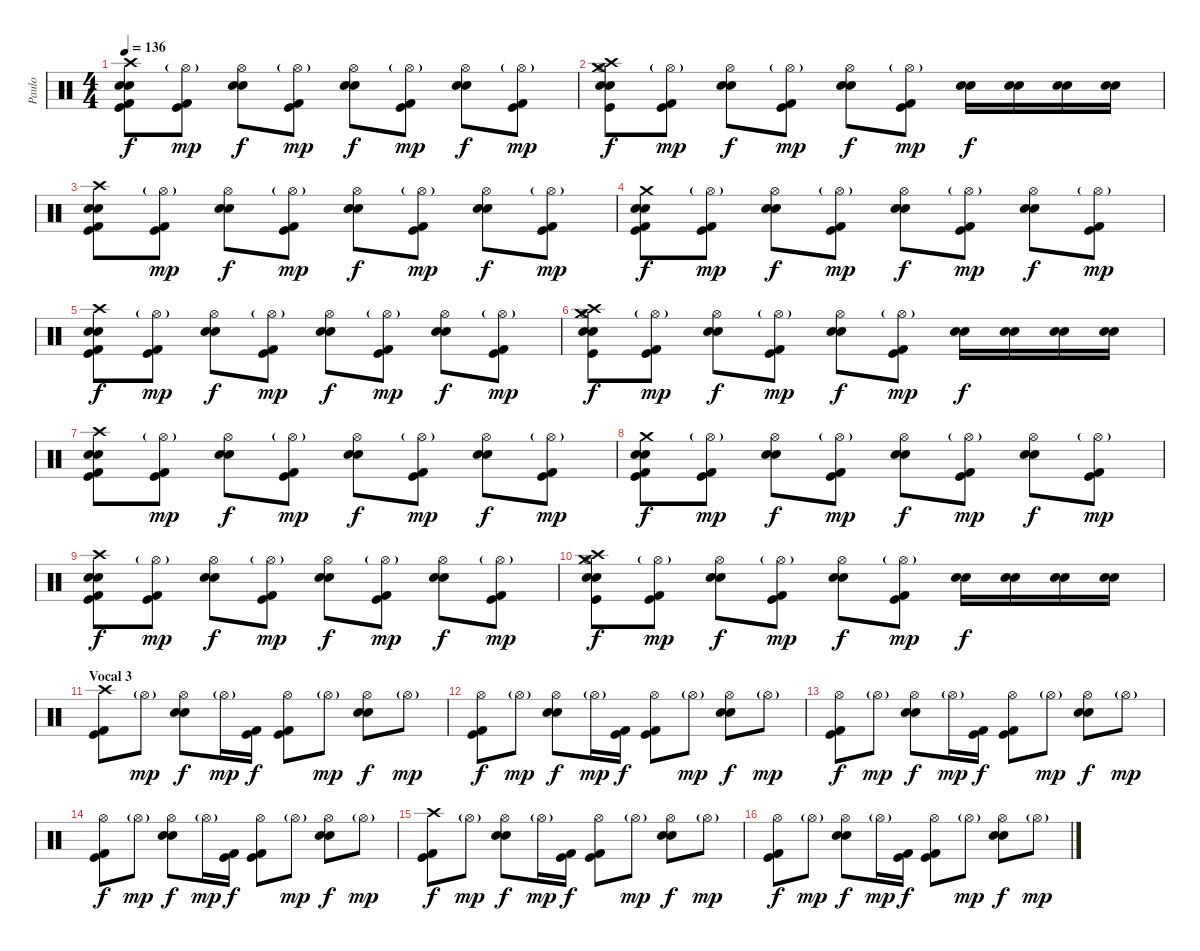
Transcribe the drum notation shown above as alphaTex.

\track ("Paulo" "Paulo") {instrument percussion}
\staff {score}
\articulation defaults
\ts (4 4)
\tempo 136
\clef neutral
\ks c
("Kick (hit) 2" "Snare (hit) 2" "Electric Snare (hit)" "Kick (hit)" "Crash high (hit)").8{dy f} ("Hi-Hat (open)"{g} "Kick (hit) 2" "Kick (hit)").8{dy mp} ("Hi-Hat (open)" "Snare (hit) 2" "Electric Snare (hit)").8{dy f} ("Hi-Hat (open)"{g} "Kick (hit) 2" "Kick (hit)").8{dy mp} ("Hi-Hat (open)" "Snare (hit) 2" "Electric Snare (hit)").8{dy f} ("Hi-Hat (open)"{g} "Kick (hit) 2" "Kick (hit)").8{dy mp} ("Hi-Hat (open)" "Snare (hit) 2" "Electric Snare (hit)").8{dy f} ("Hi-Hat (open)"{g} "Kick (hit) 2" "Kick (hit)").8{dy mp} |
("Hi-Hat (open)" "Snare (hit) 2" "Kick (hit)" "Crash medium (hit)" "Crash high (hit)" "Electric Snare (hit)").8{dy f} ("Hi-Hat (open)"{g} "Kick (hit) 2" "Kick (hit)").8{dy mp} ("Hi-Hat (open)" "Snare (hit) 2" "Electric Snare (hit)").8{dy f} ("Hi-Hat (open)"{g} "Kick (hit) 2" "Kick (hit)").8{dy mp} ("Hi-Hat (open)" "Snare (hit) 2" "Electric Snare (hit)").8{dy f} ("Hi-Hat (open)"{g} "Kick (hit) 2" "Kick (hit)").8{dy mp} ("Snare (hit) 2" "Electric Snare (hit)").16{dy f} ("Snare (hit) 2" "Electric Snare (hit)").16 ("Snare (hit) 2" "Electric Snare (hit)").16 ("Snare (hit) 2" "Electric Snare (hit)").16 |
("Kick (hit) 2" "Snare (hit) 2" "Electric Snare (hit)" "Kick (hit)" "Crash high (hit)").8 ("Hi-Hat (open)"{g} "Kick (hit) 2" "Kick (hit)").8{dy mp} ("Hi-Hat (open)" "Snare (hit) 2" "Electric Snare (hit)").8{dy f} ("Hi-Hat (open)"{g} "Kick (hit) 2" "Kick (hit)").8{dy mp} ("Hi-Hat (open)" "Snare (hit) 2" "Electric Snare (hit)").8{dy f} ("Hi-Hat (open)"{g} "Kick (hit) 2" "Kick (hit)").8{dy mp} ("Hi-Hat (open)" "Snare (hit) 2" "Electric Snare (hit)").8{dy f} ("Hi-Hat (open)"{g} "Kick (hit) 2" "Kick (hit)").8{dy mp} |
("Kick (hit) 2" "Snare (hit) 2" "Electric Snare (hit)" "Kick (hit)" "Crash medium (hit)").8{dy f} ("Hi-Hat (open)"{g} "Kick (hit) 2" "Kick (hit)").8{dy mp} ("Hi-Hat (open)" "Snare (hit) 2" "Electric Snare (hit)").8{dy f} ("Hi-Hat (open)"{g} "Kick (hit) 2" "Kick (hit)").8{dy mp} ("Hi-Hat (open)" "Snare (hit) 2" "Electric Snare (hit)").8{dy f} ("Hi-Hat (open)"{g} "Kick (hit) 2" "Kick (hit)").8{dy mp} ("Hi-Hat (open)" "Snare (hit) 2" "Electric Snare (hit)").8{dy f} ("Hi-Hat (open)"{g} "Kick (hit) 2" "Kick (hit)").8{dy mp} |
("Kick (hit) 2" "Snare (hit) 2" "Electric Snare (hit)" "Kick (hit)" "Crash high (hit)").8{dy f} ("Hi-Hat (open)"{g} "Kick (hit) 2" "Kick (hit)").8{dy mp} ("Hi-Hat (open)" "Snare (hit) 2" "Electric Snare (hit)").8{dy f} ("Hi-Hat (open)"{g} "Kick (hit) 2" "Kick (hit)").8{dy mp} ("Hi-Hat (open)" "Snare (hit) 2" "Electric Snare (hit)").8{dy f} ("Hi-Hat (open)"{g} "Kick (hit) 2" "Kick (hit)").8{dy mp} ("Hi-Hat (open)" "Snare (hit) 2" "Electric Snare (hit)").8{dy f} ("Hi-Hat (open)"{g} "Kick (hit) 2" "Kick (hit)").8{dy mp} |
("Hi-Hat (open)" "Snare (hit) 2" "Kick (hit)" "Crash medium (hit)" "Crash high (hit)" "Electric Snare (hit)").8{dy f} ("Hi-Hat (open)"{g} "Kick (hit) 2" "Kick (hit)").8{dy mp} ("Hi-Hat (open)" "Snare (hit) 2" "Electric Snare (hit)").8{dy f} ("Hi-Hat (open)"{g} "Kick (hit) 2" "Kick (hit)").8{dy mp} ("Hi-Hat (open)" "Snare (hit) 2" "Electric Snare (hit)").8{dy f} ("Hi-Hat (open)"{g} "Kick (hit) 2" "Kick (hit)").8{dy mp} ("Snare (hit) 2" "Electric Snare (hit)").16{dy f} ("Snare (hit) 2" "Electric Snare (hit)").16 ("Snare (hit) 2" "Electric Snare (hit)").16 ("Snare (hit) 2" "Electric Snare (hit)").16 |
("Kick (hit) 2" "Snare (hit) 2" "Electric Snare (hit)" "Kick (hit)" "Crash high (hit)").8 ("Hi-Hat (open)"{g} "Kick (hit) 2" "Kick (hit)").8{dy mp} ("Hi-Hat (open)" "Snare (hit) 2" "Electric Snare (hit)").8{dy f} ("Hi-Hat (open)"{g} "Kick (hit) 2" "Kick (hit)").8{dy mp} ("Hi-Hat (open)" "Snare (hit) 2" "Electric Snare (hit)").8{dy f} ("Hi-Hat (open)"{g} "Kick (hit) 2" "Kick (hit)").8{dy mp} ("Hi-Hat (open)" "Snare (hit) 2" "Electric Snare (hit)").8{dy f} ("Hi-Hat (open)"{g} "Kick (hit) 2" "Kick (hit)").8{dy mp} |
("Kick (hit) 2" "Snare (hit) 2" "Electric Snare (hit)" "Kick (hit)" "Crash medium (hit)").8{dy f} ("Hi-Hat (open)"{g} "Kick (hit) 2" "Kick (hit)").8{dy mp} ("Hi-Hat (open)" "Snare (hit) 2" "Electric Snare (hit)").8{dy f} ("Hi-Hat (open)"{g} "Kick (hit) 2" "Kick (hit)").8{dy mp} ("Hi-Hat (open)" "Snare (hit) 2" "Electric Snare (hit)").8{dy f} ("Hi-Hat (open)"{g} "Kick (hit) 2" "Kick (hit)").8{dy mp} ("Hi-Hat (open)" "Snare (hit) 2" "Electric Snare (hit)").8{dy f} ("Hi-Hat (open)"{g} "Kick (hit) 2" "Kick (hit)").8{dy mp} |
("Kick (hit) 2" "Snare (hit) 2" "Electric Snare (hit)" "Kick (hit)" "Crash high (hit)").8{dy f} ("Hi-Hat (open)"{g} "Kick (hit) 2" "Kick (hit)").8{dy mp} ("Hi-Hat (open)" "Snare (hit) 2" "Electric Snare (hit)").8{dy f} ("Hi-Hat (open)"{g} "Kick (hit) 2" "Kick (hit)").8{dy mp} ("Hi-Hat (open)" "Snare (hit) 2" "Electric Snare (hit)").8{dy f} ("Hi-Hat (open)"{g} "Kick (hit) 2" "Kick (hit)").8{dy mp} ("Hi-Hat (open)" "Snare (hit) 2" "Electric Snare (hit)").8{dy f} ("Hi-Hat (open)"{g} "Kick (hit) 2" "Kick (hit)").8{dy mp} |
("Hi-Hat (open)" "Snare (hit) 2" "Kick (hit)" "Crash medium (hit)" "Crash high (hit)" "Electric Snare (hit)").8{dy f} ("Hi-Hat (open)"{g} "Kick (hit) 2" "Kick (hit)").8{dy mp} ("Hi-Hat (open)" "Snare (hit) 2" "Electric Snare (hit)").8{dy f} ("Hi-Hat (open)"{g} "Kick (hit) 2" "Kick (hit)").8{dy mp} ("Hi-Hat (open)" "Snare (hit) 2" "Electric Snare (hit)").8{dy f} ("Hi-Hat (open)"{g} "Kick (hit) 2" "Kick (hit)").8{dy mp} ("Snare (hit) 2" "Electric Snare (hit)").16{dy f} ("Snare (hit) 2" "Electric Snare (hit)").16 ("Snare (hit) 2" "Electric Snare (hit)").16 ("Snare (hit) 2" "Electric Snare (hit)").16 |
\section ("" "Vocal 3")
("Crash high (hit)" "Kick (hit) 2" "Kick (hit)").8 "Hi-Hat (open)"{g}.8{dy mp} ("Hi-Hat (open)" "Electric Snare (hit)" "Snare (hit) 2").8{dy f} "Hi-Hat (open)"{g}.16{dy mp} ("Kick (hit) 2" "Kick (hit)").16{dy f} ("Hi-Hat (open)" "Kick (hit) 2" "Kick (hit)").8 "Hi-Hat (open)"{g}.8{dy mp} ("Hi-Hat (open)" "Electric Snare (hit)" "Snare (hit) 2").8{dy f} "Hi-Hat (open)"{g}.8{dy mp} |
("Hi-Hat (open)" "Kick (hit) 2" "Kick (hit)").8{dy f} "Hi-Hat (open)"{g}.8{dy mp} ("Hi-Hat (open)" "Electric Snare (hit)" "Snare (hit) 2").8{dy f} "Hi-Hat (open)"{g}.16{dy mp} ("Kick (hit) 2" "Kick (hit)").16{dy f} ("Hi-Hat (open)" "Kick (hit) 2" "Kick (hit)").8 "Hi-Hat (open)"{g}.8{dy mp} ("Hi-Hat (open)" "Electric Snare (hit)" "Snare (hit) 2").8{dy f} "Hi-Hat (open)"{g}.8{dy mp} |
("Hi-Hat (open)" "Kick (hit) 2" "Kick (hit)").8{dy f} "Hi-Hat (open)"{g}.8{dy mp} ("Hi-Hat (open)" "Electric Snare (hit)" "Snare (hit) 2").8{dy f} "Hi-Hat (open)"{g}.16{dy mp} ("Kick (hit) 2" "Kick (hit)").16{dy f} ("Hi-Hat (open)" "Kick (hit) 2" "Kick (hit)").8 "Hi-Hat (open)"{g}.8{dy mp} ("Hi-Hat (open)" "Electric Snare (hit)" "Snare (hit) 2").8{dy f} "Hi-Hat (open)"{g}.8{dy mp} |
("Hi-Hat (open)" "Kick (hit) 2" "Kick (hit)").8{dy f} "Hi-Hat (open)"{g}.8{dy mp} ("Hi-Hat (open)" "Electric Snare (hit)" "Snare (hit) 2").8{dy f} "Hi-Hat (open)"{g}.16{dy mp} ("Kick (hit) 2" "Kick (hit)").16{dy f} ("Hi-Hat (open)" "Kick (hit) 2" "Kick (hit)").8 "Hi-Hat (open)"{g}.8{dy mp} ("Hi-Hat (open)" "Electric Snare (hit)" "Snare (hit) 2").8{dy f} "Hi-Hat (open)"{g}.8{dy mp} |
("Crash high (hit)" "Kick (hit) 2" "Kick (hit)").8{dy f} "Hi-Hat (open)"{g}.8{dy mp} ("Hi-Hat (open)" "Electric Snare (hit)" "Snare (hit) 2").8{dy f} "Hi-Hat (open)"{g}.16{dy mp} ("Kick (hit) 2" "Kick (hit)").16{dy f} ("Hi-Hat (open)" "Kick (hit) 2" "Kick (hit)").8 "Hi-Hat (open)"{g}.8{dy mp} ("Hi-Hat (open)" "Electric Snare (hit)" "Snare (hit) 2").8{dy f} "Hi-Hat (open)"{g}.8{dy mp} |
("Hi-Hat (open)" "Kick (hit) 2" "Kick (hit)").8{dy f} "Hi-Hat (open)"{g}.8{dy mp} ("Hi-Hat (open)" "Electric Snare (hit)" "Snare (hit) 2").8{dy f} "Hi-Hat (open)"{g}.16{dy mp} ("Kick (hit) 2" "Kick (hit)").16{dy f} ("Hi-Hat (open)" "Kick (hit) 2" "Kick (hit)").8 "Hi-Hat (open)"{g}.8{dy mp} ("Hi-Hat (open)" "Electric Snare (hit)" "Snare (hit) 2").8{dy f} "Hi-Hat (open)"{g}.8{dy mp}
